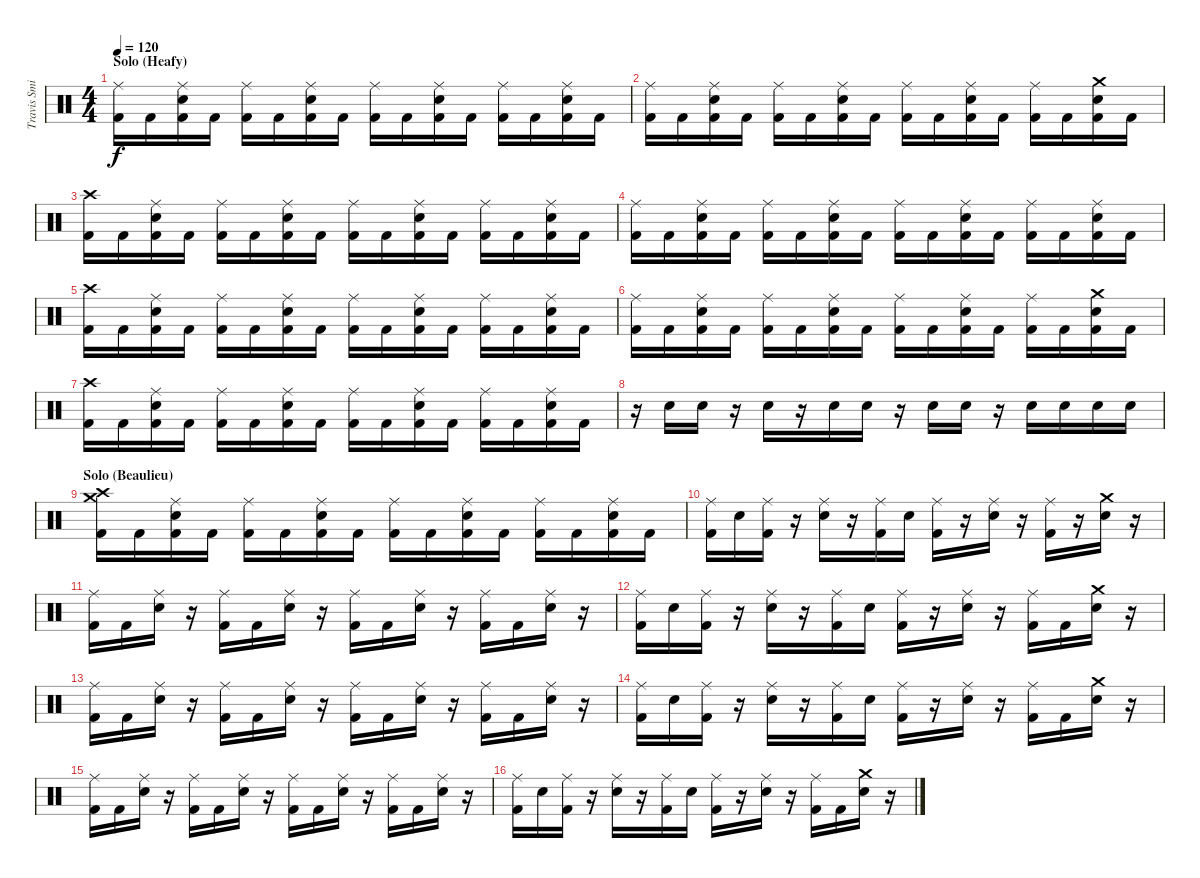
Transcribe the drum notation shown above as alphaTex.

\track ("Travis Smith" "Travis Smi") {instrument percussion}
\staff {score}
\articulation defaults
\ts (4 4)
\section ("" "Solo (Heafy)")
\tempo 120
\clef neutral
\ks c
("Ride (middle)" "Kick (hit) 2").16{dy f} "Kick (hit) 2".16 ("Ride (middle)" "Electric Snare (hit)" "Kick (hit) 2").16 "Kick (hit) 2".16 ("Ride (middle)" "Kick (hit) 2").16 "Kick (hit) 2".16 ("Ride (middle)" "Electric Snare (hit)" "Kick (hit) 2").16 "Kick (hit) 2".16 ("Ride (middle)" "Kick (hit) 2").16 "Kick (hit) 2".16 ("Ride (middle)" "Electric Snare (hit)" "Kick (hit) 2").16 "Kick (hit) 2".16 ("Ride (middle)" "Kick (hit) 2").16 "Kick (hit) 2".16 ("Ride (middle)" "Electric Snare (hit)" "Kick (hit) 2").16 "Kick (hit) 2".16 |
("Ride (middle)" "Kick (hit) 2").16 "Kick (hit) 2".16 ("Ride (middle)" "Electric Snare (hit)" "Kick (hit) 2").16 "Kick (hit) 2".16 ("Ride (middle)" "Kick (hit) 2").16 "Kick (hit) 2".16 ("Ride (middle)" "Electric Snare (hit)" "Kick (hit) 2").16 "Kick (hit) 2".16 ("Ride (middle)" "Kick (hit) 2").16 "Kick (hit) 2".16 ("Ride (middle)" "Electric Snare (hit)" "Kick (hit) 2").16 "Kick (hit) 2".16 ("Ride (middle)" "Kick (hit) 2").16 "Kick (hit) 2".16 ("Crash medium (hit)" "Electric Snare (hit)" "Kick (hit) 2").16 "Kick (hit) 2".16 |
("Crash high (hit)" "Kick (hit) 2").16 "Kick (hit) 2".16 ("Ride (middle)" "Electric Snare (hit)" "Kick (hit) 2").16 "Kick (hit) 2".16 ("Ride (middle)" "Kick (hit) 2").16 "Kick (hit) 2".16 ("Ride (middle)" "Electric Snare (hit)" "Kick (hit) 2").16 "Kick (hit) 2".16 ("Ride (middle)" "Kick (hit) 2").16 "Kick (hit) 2".16 ("Ride (middle)" "Electric Snare (hit)" "Kick (hit) 2").16 "Kick (hit) 2".16 ("Ride (middle)" "Kick (hit) 2").16 "Kick (hit) 2".16 ("Ride (middle)" "Electric Snare (hit)" "Kick (hit) 2").16 "Kick (hit) 2".16 |
("Ride (middle)" "Kick (hit) 2").16 "Kick (hit) 2".16 ("Ride (middle)" "Electric Snare (hit)" "Kick (hit) 2").16 "Kick (hit) 2".16 ("Ride (middle)" "Kick (hit) 2").16 "Kick (hit) 2".16 ("Ride (middle)" "Electric Snare (hit)" "Kick (hit) 2").16 "Kick (hit) 2".16 ("Ride (middle)" "Kick (hit) 2").16 "Kick (hit) 2".16 ("Ride (middle)" "Electric Snare (hit)" "Kick (hit) 2").16 "Kick (hit) 2".16 ("Ride (middle)" "Kick (hit) 2").16 "Kick (hit) 2".16 ("Ride (middle)" "Electric Snare (hit)" "Kick (hit) 2").16 "Kick (hit) 2".16 |
("Crash high (hit)" "Kick (hit) 2").16 "Kick (hit) 2".16 ("Ride (middle)" "Electric Snare (hit)" "Kick (hit) 2").16 "Kick (hit) 2".16 ("Ride (middle)" "Kick (hit) 2").16 "Kick (hit) 2".16 ("Ride (middle)" "Electric Snare (hit)" "Kick (hit) 2").16 "Kick (hit) 2".16 ("Ride (middle)" "Kick (hit) 2").16 "Kick (hit) 2".16 ("Ride (middle)" "Electric Snare (hit)" "Kick (hit) 2").16 "Kick (hit) 2".16 ("Ride (middle)" "Kick (hit) 2").16 "Kick (hit) 2".16 ("Ride (middle)" "Electric Snare (hit)" "Kick (hit) 2").16 "Kick (hit) 2".16 |
("Ride (middle)" "Kick (hit) 2").16 "Kick (hit) 2".16 ("Ride (middle)" "Electric Snare (hit)" "Kick (hit) 2").16 "Kick (hit) 2".16 ("Ride (middle)" "Kick (hit) 2").16 "Kick (hit) 2".16 ("Ride (middle)" "Electric Snare (hit)" "Kick (hit) 2").16 "Kick (hit) 2".16 ("Ride (middle)" "Kick (hit) 2").16 "Kick (hit) 2".16 ("Ride (middle)" "Electric Snare (hit)" "Kick (hit) 2").16 "Kick (hit) 2".16 ("Ride (middle)" "Kick (hit) 2").16 "Kick (hit) 2".16 ("Crash medium (hit)" "Electric Snare (hit)" "Kick (hit) 2").16 "Kick (hit) 2".16 |
("Crash high (hit)" "Kick (hit) 2").16 "Kick (hit) 2".16 ("Ride (middle)" "Electric Snare (hit)" "Kick (hit) 2").16 "Kick (hit) 2".16 ("Ride (middle)" "Kick (hit) 2").16 "Kick (hit) 2".16 ("Ride (middle)" "Electric Snare (hit)" "Kick (hit) 2").16 "Kick (hit) 2".16 ("Ride (middle)" "Kick (hit) 2").16 "Kick (hit) 2".16 ("Ride (middle)" "Electric Snare (hit)" "Kick (hit) 2").16 "Kick (hit) 2".16 ("Ride (middle)" "Kick (hit) 2").16 "Kick (hit) 2".16 ("Ride (middle)" "Electric Snare (hit)" "Kick (hit) 2").16 "Kick (hit) 2".16 |
r.16 "Electric Snare (hit)".16 "Electric Snare (hit)".16 r.16 "Electric Snare (hit)".16 r.16 "Electric Snare (hit)".16 "Electric Snare (hit)".16 r.16 "Electric Snare (hit)".16 "Electric Snare (hit)".16 r.16 "Electric Snare (hit)".16 "Electric Snare (hit)".16 "Electric Snare (hit)".16 "Electric Snare (hit)".16 |
\section ("" "Solo (Beaulieu)")
("Crash high (hit)" "Crash medium (hit)" "Kick (hit) 2").16 "Kick (hit) 2".16 ("Ride (middle)" "Electric Snare (hit)" "Kick (hit) 2").16 "Kick (hit) 2".16 ("Ride (middle)" "Kick (hit) 2").16 "Kick (hit) 2".16 ("Ride (middle)" "Electric Snare (hit)" "Kick (hit) 2").16 "Kick (hit) 2".16 ("Ride (middle)" "Kick (hit) 2").16 "Kick (hit) 2".16 ("Ride (middle)" "Electric Snare (hit)" "Kick (hit) 2").16 "Kick (hit) 2".16 ("Ride (middle)" "Kick (hit) 2").16 "Kick (hit) 2".16 ("Ride (middle)" "Electric Snare (hit)" "Kick (hit) 2").16 "Kick (hit) 2".16 |
("Ride (middle)" "Kick (hit) 2").16 "Electric Snare (hit)".16 ("Ride (middle)" "Kick (hit) 2").16 r.16 ("Ride (middle)" "Electric Snare (hit)").16 r.16 ("Ride (middle)" "Kick (hit) 2").16 "Electric Snare (hit)".16 ("Ride (middle)" "Kick (hit) 2").16 r.16 ("Ride (middle)" "Electric Snare (hit)").16 r.16 ("Ride (middle)" "Kick (hit) 2").16 r.16 ("Crash medium (hit)" "Electric Snare (hit)").16 r.16 |
("Ride (middle)" "Kick (hit) 2").16 "Kick (hit) 2".16 ("Ride (middle)" "Electric Snare (hit)").16 r.16 ("Ride (middle)" "Kick (hit) 2").16 "Kick (hit) 2".16 ("Ride (middle)" "Electric Snare (hit)").16 r.16 ("Ride (middle)" "Kick (hit) 2").16 "Kick (hit) 2".16 ("Ride (middle)" "Electric Snare (hit)").16 r.16 ("Ride (middle)" "Kick (hit) 2").16 "Kick (hit) 2".16 ("Ride (middle)" "Electric Snare (hit)").16 r.16 |
("Ride (middle)" "Kick (hit) 2").16 "Electric Snare (hit)".16 ("Ride (middle)" "Kick (hit) 2").16 r.16 ("Ride (middle)" "Electric Snare (hit)").16 r.16 ("Ride (middle)" "Kick (hit) 2").16 "Electric Snare (hit)".16 ("Ride (middle)" "Kick (hit) 2").16 r.16 ("Ride (middle)" "Electric Snare (hit)").16 r.16 ("Ride (middle)" "Kick (hit) 2").16 "Kick (hit) 2".16 ("Crash medium (hit)" "Electric Snare (hit)").16 r.16 |
("Ride (middle)" "Kick (hit) 2").16 "Kick (hit) 2".16 ("Ride (middle)" "Electric Snare (hit)").16 r.16 ("Ride (middle)" "Kick (hit) 2").16 "Kick (hit) 2".16 ("Ride (middle)" "Electric Snare (hit)").16 r.16 ("Ride (middle)" "Kick (hit) 2").16 "Kick (hit) 2".16 ("Ride (middle)" "Electric Snare (hit)").16 r.16 ("Ride (middle)" "Kick (hit) 2").16 "Kick (hit) 2".16 ("Ride (middle)" "Electric Snare (hit)").16 r.16 |
("Ride (middle)" "Kick (hit) 2").16 "Electric Snare (hit)".16 ("Ride (middle)" "Kick (hit) 2").16 r.16 ("Ride (middle)" "Electric Snare (hit)").16 r.16 ("Ride (middle)" "Kick (hit) 2").16 "Electric Snare (hit)".16 ("Ride (middle)" "Kick (hit) 2").16 r.16 ("Ride (middle)" "Electric Snare (hit)").16 r.16 ("Ride (middle)" "Kick (hit) 2").16 "Kick (hit) 2".16 ("Crash medium (hit)" "Electric Snare (hit)").16 r.16 |
("Ride (middle)" "Kick (hit) 2").16 "Kick (hit) 2".16 ("Ride (middle)" "Electric Snare (hit)").16 r.16 ("Ride (middle)" "Kick (hit) 2").16 "Kick (hit) 2".16 ("Ride (middle)" "Electric Snare (hit)").16 r.16 ("Ride (middle)" "Kick (hit) 2").16 "Kick (hit) 2".16 ("Ride (middle)" "Electric Snare (hit)").16 r.16 ("Ride (middle)" "Kick (hit) 2").16 "Kick (hit) 2".16 ("Ride (middle)" "Electric Snare (hit)").16 r.16 |
("Ride (middle)" "Kick (hit) 2").16 "Electric Snare (hit)".16 ("Ride (middle)" "Kick (hit) 2").16 r.16 ("Ride (middle)" "Electric Snare (hit)").16 r.16 ("Ride (middle)" "Kick (hit) 2").16 "Electric Snare (hit)".16 ("Ride (middle)" "Kick (hit) 2").16 r.16 ("Ride (middle)" "Electric Snare (hit)").16 r.16 ("Ride (middle)" "Kick (hit) 2").16 "Kick (hit) 2".16 ("Crash medium (hit)" "Electric Snare (hit)").16 r.16
